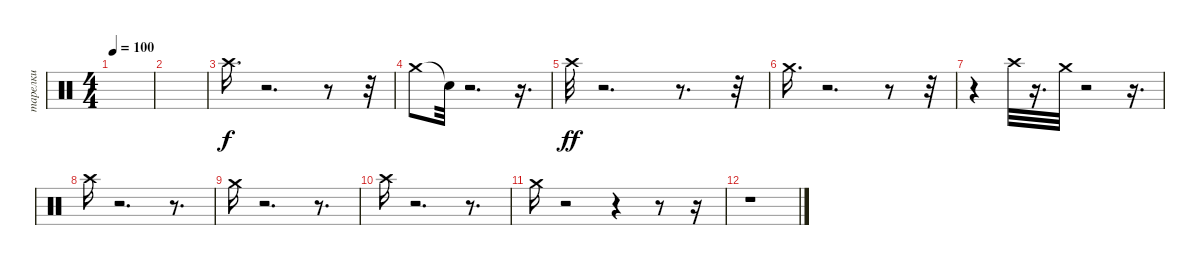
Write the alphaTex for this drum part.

\track ("тарелки" "тарелки") {instrument percussion}
\staff {score}
\articulation defaults
\ts (4 4)
\tempo 100
\clef neutral
\ks c
|
|
"Crash high (hit)".16{d} r.2{d} r.8 r.32 |
"Crash medium (hit)".8 "Snare (hit)"{t}.32{dy f} r.2{d} r.16{d} |
"Crash high (hit)".32{dy ff} r.2{d} r.8{d} r.32 |
"Crash medium (hit)".16{d} r.2{d} r.8 r.32 |
r.4 "Crash high (hit)".32 r.16{d} "Crash medium (hit)".32 r.2 r.16{d} |
"Crash high (hit)".16 r.2{d} r.8{d} |
"Crash medium (hit)".16 r.2{d} r.8{d} |
"Crash high (hit)".16 r.2{d} r.8{d} |
"Crash medium (hit)".16 r.2 r.4 r.8 r.16 |
r.1
